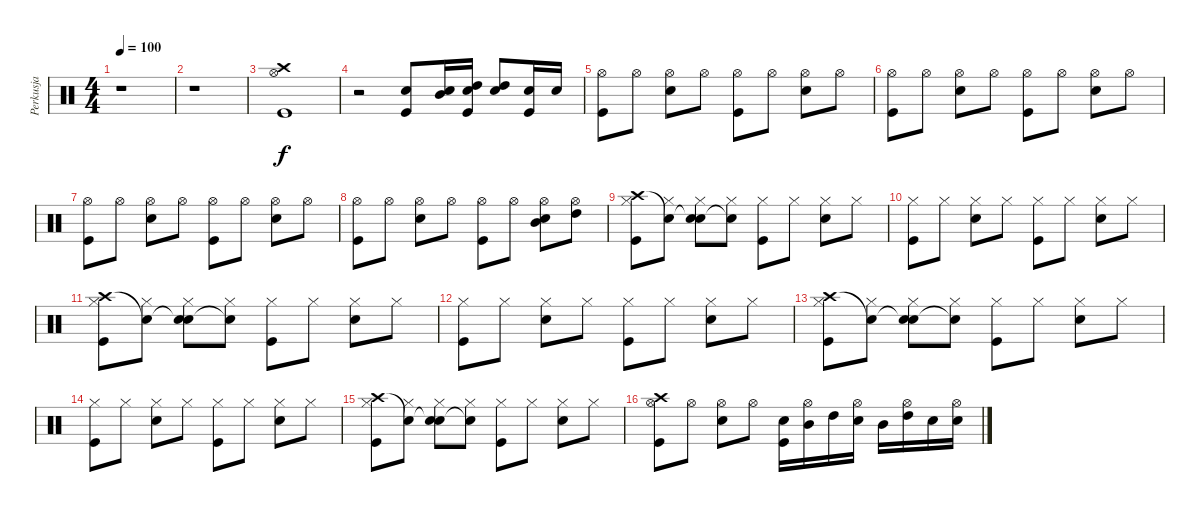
\track ("Perkusja" "Perkusja") {instrument percussion}
\staff {score}
\articulation defaults
\ts (4 4)
\tempo 100
\clef neutral
\ks c
r.1{dy f} |
r.1 |
("Hi-Hat (open)" "Crash high (hit)" "Kick (hit)").1 |
r.2 ("Metronome (bell)" "Kick (hit)").8 ("Mid Tom (hit)" "Metronome (bell)").16 ("High Tom (hit)" "Metronome (bell)" "Kick (hit)").16 ("High Tom (hit)" "Metronome (bell)").8 ("Metronome (bell)" "Kick (hit)").16 "Metronome (bell)".16 |
("Hi-Hat (open)" "Kick (hit)").8 "Hi-Hat (open)".8 ("Hi-Hat (open)" "Metronome (bell)").8 "Hi-Hat (open)".8 ("Hi-Hat (open)" "Kick (hit)").8 "Hi-Hat (open)".8 ("Hi-Hat (open)" "Metronome (bell)").8 "Hi-Hat (open)".8 |
("Hi-Hat (open)" "Kick (hit)").8 "Hi-Hat (open)".8 ("Hi-Hat (open)" "Metronome (bell)").8 "Hi-Hat (open)".8 ("Hi-Hat (open)" "Kick (hit)").8 "Hi-Hat (open)".8 ("Hi-Hat (open)" "Metronome (bell)").8 "Hi-Hat (open)".8 |
("Hi-Hat (open)" "Kick (hit)").8 "Hi-Hat (open)".8 ("Hi-Hat (open)" "Metronome (bell)").8 "Hi-Hat (open)".8 ("Hi-Hat (open)" "Kick (hit)").8 "Hi-Hat (open)".8 ("Hi-Hat (open)" "Metronome (bell)").8 "Hi-Hat (open)".8 |
("Hi-Hat (open)" "Kick (hit)").8 "Hi-Hat (open)".8 ("Hi-Hat (open)" "Metronome (bell)").8 "Hi-Hat (open)".8 ("Hi-Hat (open)" "Kick (hit)").8 "Hi-Hat (open)".8 ("Hi-Hat (open)" "Mid Tom (hit)" "Metronome (bell)").8 ("Hi-Hat (open)" "High Tom (hit)").8 |
("Hi-Hat (closed)" "Crash high (hit)" "Kick (hit)").8 ("Hi-Hat (closed)" "Snare (hit)"{t}).8 ("Hi-Hat (closed)" "Snare (hit)"{t} "Metronome (bell)").8 ("Hi-Hat (closed)" "Snare (hit)"{t}).8 ("Hi-Hat (closed)" "Kick (hit)").8 "Hi-Hat (closed)".8 ("Hi-Hat (closed)" "Metronome (bell)").8 "Hi-Hat (closed)".8 |
("Hi-Hat (closed)" "Kick (hit)").8 "Hi-Hat (closed)".8 ("Hi-Hat (closed)" "Metronome (bell)").8 "Hi-Hat (closed)".8 ("Hi-Hat (closed)" "Kick (hit)").8 "Hi-Hat (closed)".8 ("Hi-Hat (closed)" "Metronome (bell)").8 "Hi-Hat (closed)".8 |
("Hi-Hat (closed)" "Crash high (hit)" "Kick (hit)").8 ("Hi-Hat (closed)" "Snare (hit)"{t}).8 ("Hi-Hat (closed)" "Snare (hit)"{t} "Metronome (bell)").8 ("Hi-Hat (closed)" "Snare (hit)"{t}).8 ("Hi-Hat (closed)" "Kick (hit)").8 "Hi-Hat (closed)".8 ("Hi-Hat (closed)" "Metronome (bell)").8 "Hi-Hat (closed)".8 |
("Hi-Hat (closed)" "Kick (hit)").8 "Hi-Hat (closed)".8 ("Hi-Hat (closed)" "Metronome (bell)").8 "Hi-Hat (closed)".8 ("Hi-Hat (closed)" "Kick (hit)").8 "Hi-Hat (closed)".8 ("Hi-Hat (closed)" "Metronome (bell)").8 "Hi-Hat (closed)".8 |
("Hi-Hat (closed)" "Crash high (hit)" "Kick (hit)").8 ("Hi-Hat (closed)" "Snare (hit)"{t}).8 ("Hi-Hat (closed)" "Snare (hit)"{t} "Metronome (bell)").8 ("Hi-Hat (closed)" "Snare (hit)"{t}).8 ("Hi-Hat (closed)" "Kick (hit)").8 "Hi-Hat (closed)".8 ("Hi-Hat (closed)" "Metronome (bell)").8 "Hi-Hat (closed)".8 |
("Hi-Hat (closed)" "Kick (hit)").8 "Hi-Hat (closed)".8 ("Hi-Hat (closed)" "Metronome (bell)").8 "Hi-Hat (closed)".8 ("Hi-Hat (closed)" "Kick (hit)").8 "Hi-Hat (closed)".8 ("Hi-Hat (closed)" "Metronome (bell)").8 "Hi-Hat (closed)".8 |
("Hi-Hat (closed)" "Crash high (hit)" "Kick (hit)").8 ("Hi-Hat (closed)" "Snare (hit)"{t}).8 ("Hi-Hat (closed)" "Snare (hit)"{t} "Metronome (bell)").8 ("Hi-Hat (closed)" "Snare (hit)"{t}).8 ("Hi-Hat (closed)" "Kick (hit)").8 "Hi-Hat (closed)".8 ("Hi-Hat (closed)" "Metronome (bell)").8 "Hi-Hat (closed)".8 |
("Hi-Hat (open)" "Crash high (hit)" "Kick (hit)").8 "Hi-Hat (open)".8 ("Hi-Hat (open)" "Metronome (bell)").8 "Hi-Hat (open)".8 ("Metronome (bell)" "Kick (hit)").16 ("Hi-Hat (open)" "Mid Tom (hit)").16 "High Tom (hit)".16 ("Hi-Hat (open)" "Metronome (bell)").16 "Mid Tom (hit)".16 ("Hi-Hat (open)" "High Tom (hit)").16 "Metronome (bell)".16 ("Hi-Hat (open)" "Metronome (bell)").16
